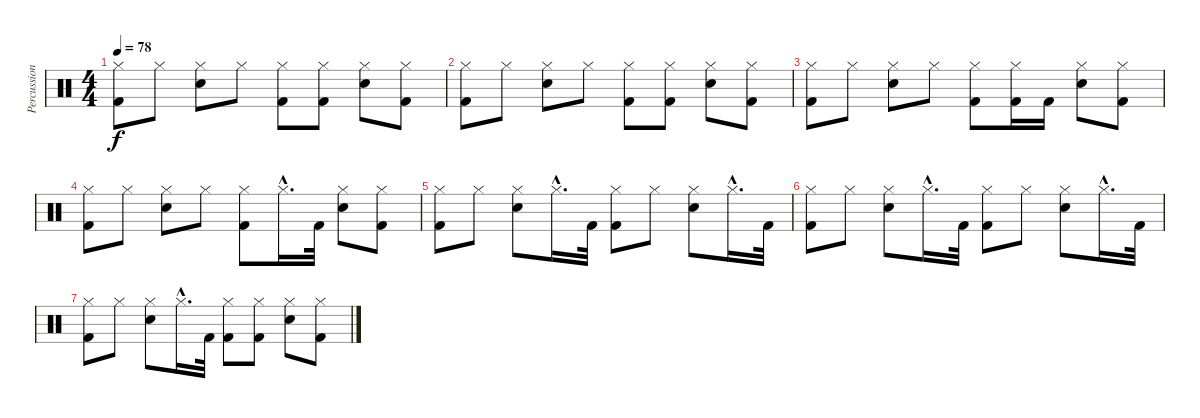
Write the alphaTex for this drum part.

\track ("Percussions" "Percussion") {instrument percussion}
\staff {score}
\articulation defaults
\ts (4 4)
\tempo 78
\clef neutral
\ks c
("Hi-Hat (closed)" "Kick (hit) 2").8{dy f} "Hi-Hat (closed)".8 ("Hi-Hat (closed)" "Electric Snare (hit)").8 "Hi-Hat (closed)".8 ("Hi-Hat (closed)" "Kick (hit) 2").8 ("Hi-Hat (closed)" "Kick (hit) 2").8 ("Hi-Hat (closed)" "Electric Snare (hit)").8 ("Hi-Hat (closed)" "Kick (hit) 2").8 |
("Hi-Hat (closed)" "Kick (hit) 2").8{volume 4} "Hi-Hat (closed)".8 ("Hi-Hat (closed)" "Electric Snare (hit)").8 "Hi-Hat (closed)".8 ("Hi-Hat (closed)" "Kick (hit) 2").8 ("Hi-Hat (closed)" "Kick (hit) 2").8 ("Hi-Hat (closed)" "Electric Snare (hit)").8 ("Hi-Hat (closed)" "Kick (hit) 2").8 |
("Hi-Hat (closed)" "Kick (hit) 2").8 "Hi-Hat (closed)".8 ("Hi-Hat (closed)" "Electric Snare (hit)").8 "Hi-Hat (closed)".8 ("Hi-Hat (closed)" "Kick (hit) 2").8 ("Hi-Hat (closed)" "Kick (hit) 2").16 "Kick (hit) 2".16 ("Hi-Hat (closed)" "Electric Snare (hit)").8 ("Hi-Hat (closed)" "Kick (hit) 2").8 |
("Hi-Hat (closed)" "Kick (hit) 2").8{volume 2} "Hi-Hat (closed)".8 ("Hi-Hat (closed)" "Electric Snare (hit)").8 "Hi-Hat (closed)".8 ("Hi-Hat (closed)" "Kick (hit) 2").8 "Hi-Hat (closed)"{hac}.16{d} "Kick (hit) 2".32 ("Hi-Hat (closed)" "Electric Snare (hit)").8 ("Hi-Hat (closed)" "Kick (hit) 2").8 |
("Hi-Hat (closed)" "Kick (hit) 2").8 "Hi-Hat (closed)".8 ("Hi-Hat (closed)" "Electric Snare (hit)").8 "Hi-Hat (closed)"{hac}.16{d} "Kick (hit) 2".32 ("Hi-Hat (closed)" "Kick (hit) 2").8 "Hi-Hat (closed)".8 ("Hi-Hat (closed)" "Electric Snare (hit)").8 "Hi-Hat (closed)"{hac}.16{d} "Kick (hit) 2".32 |
("Hi-Hat (closed)" "Kick (hit) 2").8{volume 0} "Hi-Hat (closed)".8 ("Hi-Hat (closed)" "Electric Snare (hit)").8 "Hi-Hat (closed)"{hac}.16{d} "Kick (hit) 2".32 ("Hi-Hat (closed)" "Kick (hit) 2").8 "Hi-Hat (closed)".8 ("Hi-Hat (closed)" "Electric Snare (hit)").8 "Hi-Hat (closed)"{hac}.16{d} "Kick (hit) 2".32 |
("Hi-Hat (closed)" "Kick (hit) 2").8 "Hi-Hat (closed)".8 ("Hi-Hat (closed)" "Electric Snare (hit)").8 "Hi-Hat (closed)"{hac}.16{d} "Kick (hit) 2".32 ("Hi-Hat (closed)" "Kick (hit) 2").8 ("Hi-Hat (closed)" "Kick (hit) 2").8 ("Hi-Hat (closed)" "Electric Snare (hit)").8 ("Hi-Hat (closed)" "Kick (hit) 2").8
